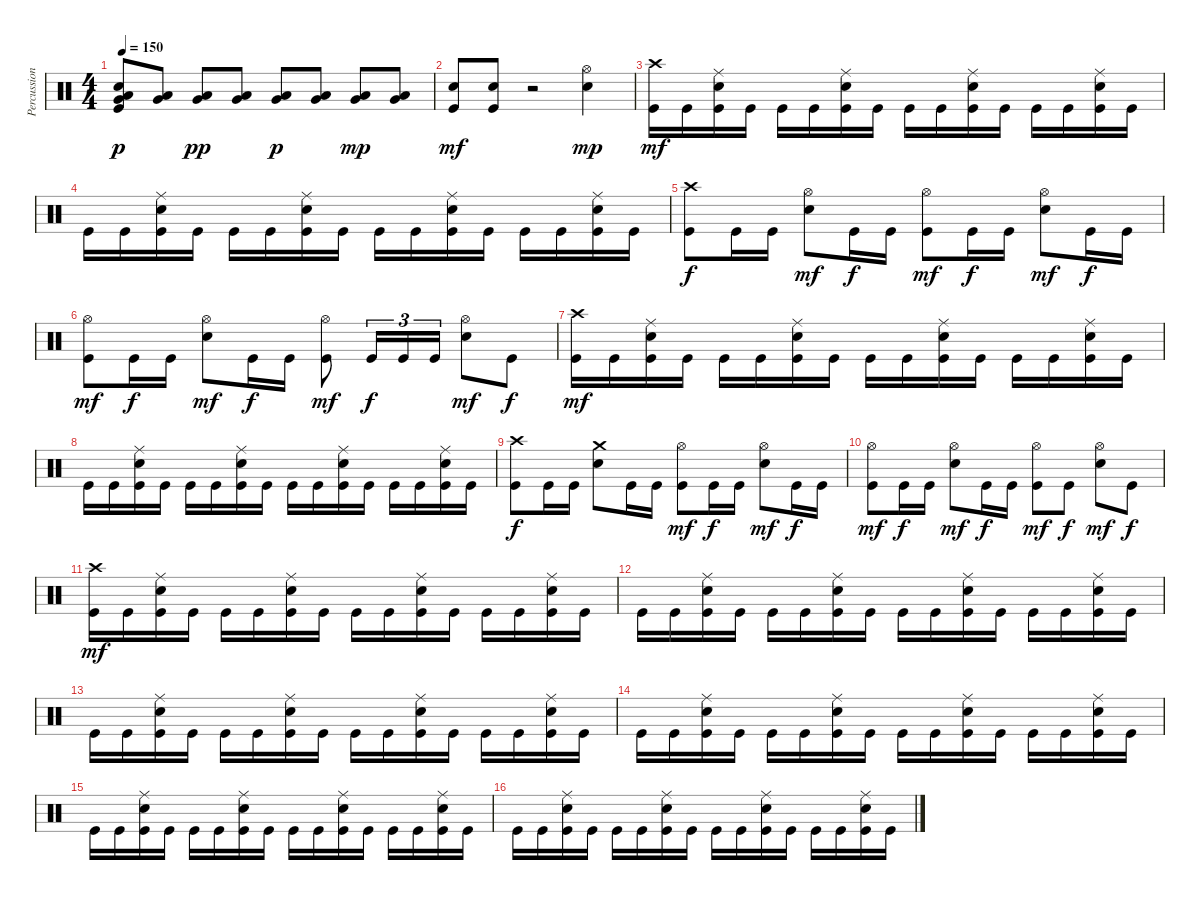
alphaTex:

\track ("Percussions" "Percussion") {instrument percussion}
\staff {score}
\articulation defaults
\ts (4 4)
\tempo 150
\clef neutral
\ks c
("Kick (hit)" "Electric Snare (hit)" "Very Low Tom (hit)" "Low Tom (hit)").8{dy p} ("Very Low Tom (hit)" "Low Tom (hit)").8 ("Very Low Tom (hit)" "Low Tom (hit)").8{dy pp} ("Very Low Tom (hit)" "Low Tom (hit)").8 ("Very Low Tom (hit)" "Low Tom (hit)").8{dy p} ("Very Low Tom (hit)" "Low Tom (hit)").8 ("Very Low Tom (hit)" "Low Tom (hit)").8{dy mp} ("Very Low Tom (hit)" "Low Tom (hit)").8 |
("Kick (hit)" "Electric Snare (hit)").8{dy mf} ("Kick (hit)" "Electric Snare (hit)").8 r.2 ("Electric Snare (hit)" "Hi-Hat (open)").4{dy mp} |
("Kick (hit)" "Crash high (hit)").16{dy mf} "Kick (hit)".16 ("Kick (hit)" "Electric Snare (hit)" "Ride (middle)").16 "Kick (hit)".16 "Kick (hit)".16 "Kick (hit)".16 ("Kick (hit)" "Electric Snare (hit)" "Ride (middle)").16 "Kick (hit)".16 "Kick (hit)".16 "Kick (hit)".16 ("Kick (hit)" "Electric Snare (hit)" "Ride (middle)").16 "Kick (hit)".16 "Kick (hit)".16 "Kick (hit)".16 ("Kick (hit)" "Electric Snare (hit)" "Ride (middle)").16 "Kick (hit)".16 |
"Kick (hit)".16 "Kick (hit)".16 ("Kick (hit)" "Electric Snare (hit)" "Ride (middle)").16 "Kick (hit)".16 "Kick (hit)".16 "Kick (hit)".16 ("Kick (hit)" "Electric Snare (hit)" "Ride (middle)").16 "Kick (hit)".16 "Kick (hit)".16 "Kick (hit)".16 ("Kick (hit)" "Electric Snare (hit)" "Ride (middle)").16 "Kick (hit)".16 "Kick (hit)".16 "Kick (hit)".16 ("Kick (hit)" "Electric Snare (hit)" "Ride (middle)").16 "Kick (hit)".16 |
("Kick (hit)" "Crash high (hit)").8{dy f} "Kick (hit)".16 "Kick (hit)".16 ("Electric Snare (hit)" "Hi-Hat (open)").8{dy mf} "Kick (hit)".16{dy f} "Kick (hit)".16 ("Kick (hit)" "Hi-Hat (open)").8{dy mf} "Kick (hit)".16{dy f} "Kick (hit)".16 ("Electric Snare (hit)" "Hi-Hat (open)").8{dy mf} "Kick (hit)".16{dy f} "Kick (hit)".16 |
("Kick (hit)" "Hi-Hat (open)").8{dy mf} "Kick (hit)".16{dy f} "Kick (hit)".16 ("Electric Snare (hit)" "Hi-Hat (open)").8{dy mf} "Kick (hit)".16{dy f} "Kick (hit)".16 ("Kick (hit)" "Hi-Hat (open)").8{dy mf} "Kick (hit)".16{tu (3 2) dy f} "Kick (hit)".16{tu (3 2)} "Kick (hit)".16{tu (3 2)} ("Electric Snare (hit)" "Hi-Hat (open)").8{dy mf} "Kick (hit)".8{dy f} |
("Kick (hit)" "Crash high (hit)").16{dy mf} "Kick (hit)".16 ("Kick (hit)" "Electric Snare (hit)" "Ride (middle)").16 "Kick (hit)".16 "Kick (hit)".16 "Kick (hit)".16 ("Kick (hit)" "Electric Snare (hit)" "Ride (middle)").16 "Kick (hit)".16 "Kick (hit)".16 "Kick (hit)".16 ("Kick (hit)" "Electric Snare (hit)" "Ride (middle)").16 "Kick (hit)".16 "Kick (hit)".16 "Kick (hit)".16 ("Kick (hit)" "Electric Snare (hit)" "Ride (middle)").16 "Kick (hit)".16 |
"Kick (hit)".16 "Kick (hit)".16 ("Kick (hit)" "Electric Snare (hit)" "Ride (middle)").16 "Kick (hit)".16 "Kick (hit)".16 "Kick (hit)".16 ("Kick (hit)" "Electric Snare (hit)" "Ride (middle)").16 "Kick (hit)".16 "Kick (hit)".16 "Kick (hit)".16 ("Kick (hit)" "Electric Snare (hit)" "Ride (middle)").16 "Kick (hit)".16 "Kick (hit)".16 "Kick (hit)".16 ("Kick (hit)" "Electric Snare (hit)" "Ride (middle)").16 "Kick (hit)".16 |
("Kick (hit)" "Crash high (hit)").8{dy f} "Kick (hit)".16 "Kick (hit)".16 ("Electric Snare (hit)" "Crash medium (hit)").8 "Kick (hit)".16 "Kick (hit)".16 ("Kick (hit)" "Hi-Hat (open)").8{dy mf} "Kick (hit)".16{dy f} "Kick (hit)".16 ("Electric Snare (hit)" "Hi-Hat (open)").8{dy mf} "Kick (hit)".16{dy f} "Kick (hit)".16 |
("Kick (hit)" "Hi-Hat (open)").8{dy mf} "Kick (hit)".16{dy f} "Kick (hit)".16 ("Electric Snare (hit)" "Hi-Hat (open)").8{dy mf} "Kick (hit)".16{dy f} "Kick (hit)".16 ("Kick (hit)" "Hi-Hat (open)").8{dy mf} "Kick (hit)".8{dy f} ("Electric Snare (hit)" "Hi-Hat (open)").8{dy mf} "Kick (hit)".8{dy f} |
("Kick (hit)" "Crash high (hit)").16{dy mf} "Kick (hit)".16 ("Kick (hit)" "Electric Snare (hit)" "Ride (middle)").16 "Kick (hit)".16 "Kick (hit)".16 "Kick (hit)".16 ("Kick (hit)" "Electric Snare (hit)" "Ride (middle)").16 "Kick (hit)".16 "Kick (hit)".16 "Kick (hit)".16 ("Kick (hit)" "Electric Snare (hit)" "Ride (middle)").16 "Kick (hit)".16 "Kick (hit)".16 "Kick (hit)".16 ("Kick (hit)" "Electric Snare (hit)" "Ride (middle)").16 "Kick (hit)".16 |
"Kick (hit)".16 "Kick (hit)".16 ("Kick (hit)" "Electric Snare (hit)" "Ride (middle)").16 "Kick (hit)".16 "Kick (hit)".16 "Kick (hit)".16 ("Kick (hit)" "Electric Snare (hit)" "Ride (middle)").16 "Kick (hit)".16 "Kick (hit)".16 "Kick (hit)".16 ("Kick (hit)" "Electric Snare (hit)" "Ride (middle)").16 "Kick (hit)".16 "Kick (hit)".16 "Kick (hit)".16 ("Kick (hit)" "Electric Snare (hit)" "Ride (middle)").16 "Kick (hit)".16 |
"Kick (hit)".16 "Kick (hit)".16 ("Kick (hit)" "Electric Snare (hit)" "Ride (middle)").16 "Kick (hit)".16 "Kick (hit)".16 "Kick (hit)".16 ("Kick (hit)" "Electric Snare (hit)" "Ride (middle)").16 "Kick (hit)".16 "Kick (hit)".16 "Kick (hit)".16 ("Kick (hit)" "Electric Snare (hit)" "Ride (middle)").16 "Kick (hit)".16 "Kick (hit)".16 "Kick (hit)".16 ("Kick (hit)" "Electric Snare (hit)" "Ride (middle)").16 "Kick (hit)".16 |
"Kick (hit)".16 "Kick (hit)".16 ("Kick (hit)" "Electric Snare (hit)" "Ride (middle)").16 "Kick (hit)".16 "Kick (hit)".16 "Kick (hit)".16 ("Kick (hit)" "Electric Snare (hit)" "Ride (middle)").16 "Kick (hit)".16 "Kick (hit)".16 "Kick (hit)".16 ("Kick (hit)" "Electric Snare (hit)" "Ride (middle)").16 "Kick (hit)".16 "Kick (hit)".16 "Kick (hit)".16 ("Kick (hit)" "Electric Snare (hit)" "Ride (middle)").16 "Kick (hit)".16 |
"Kick (hit)".16 "Kick (hit)".16 ("Kick (hit)" "Electric Snare (hit)" "Ride (middle)").16 "Kick (hit)".16 "Kick (hit)".16 "Kick (hit)".16 ("Kick (hit)" "Electric Snare (hit)" "Ride (middle)").16 "Kick (hit)".16 "Kick (hit)".16 "Kick (hit)".16 ("Kick (hit)" "Electric Snare (hit)" "Ride (middle)").16 "Kick (hit)".16 "Kick (hit)".16 "Kick (hit)".16 ("Kick (hit)" "Electric Snare (hit)" "Ride (middle)").16 "Kick (hit)".16 |
"Kick (hit)".16 "Kick (hit)".16 ("Kick (hit)" "Electric Snare (hit)" "Ride (middle)").16 "Kick (hit)".16 "Kick (hit)".16 "Kick (hit)".16 ("Kick (hit)" "Electric Snare (hit)" "Ride (middle)").16 "Kick (hit)".16 "Kick (hit)".16 "Kick (hit)".16 ("Kick (hit)" "Electric Snare (hit)" "Ride (middle)").16 "Kick (hit)".16 "Kick (hit)".16 "Kick (hit)".16 ("Kick (hit)" "Electric Snare (hit)" "Ride (middle)").16 "Kick (hit)".16
